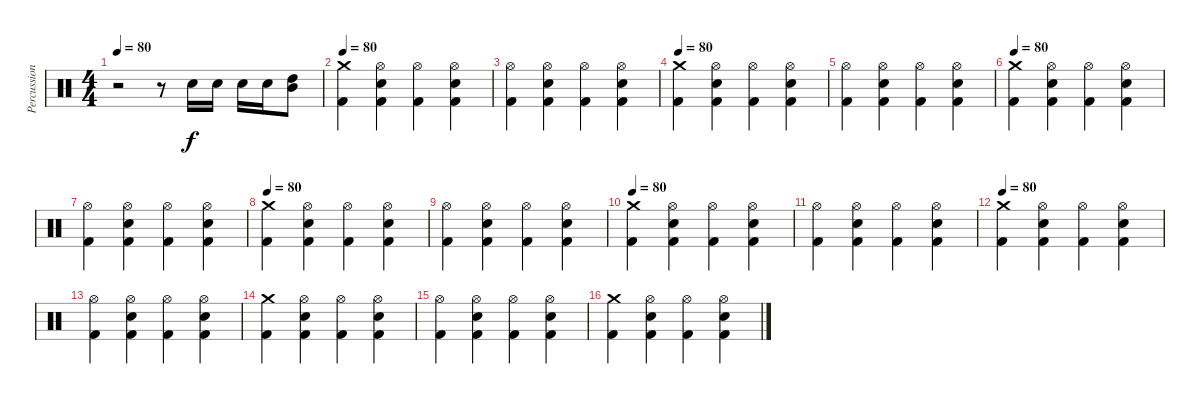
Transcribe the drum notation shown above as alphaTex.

\track ("Percussion" "Percussion") {instrument percussion}
\staff {score}
\articulation defaults
\ts (4 4)
\tempo 80
\clef neutral
\ks c
r.2{dy f} r.8 "Electric Snare (hit)".16 "Electric Snare (hit)".16 "Electric Snare (hit)".16 "Electric Snare (hit)".16 ("High Tom (hit)" "Mid Tom (hit)").8 |
\tempo 80
("Crash medium (hit)" "Kick (hit) 2").4 ("Hi-Hat (open)" "Electric Snare (hit)" "Kick (hit) 2").4 ("Hi-Hat (open)" "Kick (hit) 2").4 ("Hi-Hat (open)" "Electric Snare (hit)" "Kick (hit) 2").4 |
("Hi-Hat (open)" "Kick (hit) 2").4 ("Hi-Hat (open)" "Electric Snare (hit)" "Kick (hit) 2").4 ("Hi-Hat (open)" "Kick (hit) 2").4 ("Hi-Hat (open)" "Electric Snare (hit)" "Kick (hit) 2").4 |
\tempo 80
("Crash medium (hit)" "Kick (hit) 2").4 ("Hi-Hat (open)" "Electric Snare (hit)" "Kick (hit) 2").4 ("Hi-Hat (open)" "Kick (hit) 2").4 ("Hi-Hat (open)" "Electric Snare (hit)" "Kick (hit) 2").4 |
("Hi-Hat (open)" "Kick (hit) 2").4 ("Hi-Hat (open)" "Electric Snare (hit)" "Kick (hit) 2").4 ("Hi-Hat (open)" "Kick (hit) 2").4 ("Hi-Hat (open)" "Electric Snare (hit)" "Kick (hit) 2").4 |
\tempo 80
("Crash medium (hit)" "Kick (hit) 2").4 ("Hi-Hat (open)" "Electric Snare (hit)" "Kick (hit) 2").4 ("Hi-Hat (open)" "Kick (hit) 2").4 ("Hi-Hat (open)" "Electric Snare (hit)" "Kick (hit) 2").4 |
("Hi-Hat (open)" "Kick (hit) 2").4 ("Hi-Hat (open)" "Electric Snare (hit)" "Kick (hit) 2").4 ("Hi-Hat (open)" "Kick (hit) 2").4 ("Hi-Hat (open)" "Electric Snare (hit)" "Kick (hit) 2").4 |
\tempo 80
("Crash medium (hit)" "Kick (hit) 2").4 ("Hi-Hat (open)" "Electric Snare (hit)" "Kick (hit) 2").4 ("Hi-Hat (open)" "Kick (hit) 2").4 ("Hi-Hat (open)" "Electric Snare (hit)" "Kick (hit) 2").4 |
("Hi-Hat (open)" "Kick (hit) 2").4 ("Hi-Hat (open)" "Electric Snare (hit)" "Kick (hit) 2").4 ("Hi-Hat (open)" "Kick (hit) 2").4 ("Hi-Hat (open)" "Electric Snare (hit)" "Kick (hit) 2").4 |
\tempo 80
("Crash medium (hit)" "Kick (hit) 2").4 ("Hi-Hat (open)" "Electric Snare (hit)" "Kick (hit) 2").4 ("Hi-Hat (open)" "Kick (hit) 2").4 ("Hi-Hat (open)" "Electric Snare (hit)" "Kick (hit) 2").4 |
("Hi-Hat (open)" "Kick (hit) 2").4 ("Hi-Hat (open)" "Electric Snare (hit)" "Kick (hit) 2").4 ("Hi-Hat (open)" "Kick (hit) 2").4 ("Hi-Hat (open)" "Electric Snare (hit)" "Kick (hit) 2").4 |
\tempo 80
("Crash medium (hit)" "Kick (hit) 2").4 ("Hi-Hat (open)" "Electric Snare (hit)" "Kick (hit) 2").4 ("Hi-Hat (open)" "Kick (hit) 2").4 ("Hi-Hat (open)" "Electric Snare (hit)" "Kick (hit) 2").4 |
("Hi-Hat (open)" "Kick (hit) 2").4 ("Hi-Hat (open)" "Electric Snare (hit)" "Kick (hit) 2").4 ("Hi-Hat (open)" "Kick (hit) 2").4 ("Hi-Hat (open)" "Electric Snare (hit)" "Kick (hit) 2").4 |
("Crash medium (hit)" "Kick (hit) 2").4 ("Hi-Hat (open)" "Electric Snare (hit)" "Kick (hit) 2").4 ("Hi-Hat (open)" "Kick (hit) 2").4 ("Hi-Hat (open)" "Electric Snare (hit)" "Kick (hit) 2").4 |
("Hi-Hat (open)" "Kick (hit) 2").4 ("Hi-Hat (open)" "Electric Snare (hit)" "Kick (hit) 2").4 ("Hi-Hat (open)" "Kick (hit) 2").4 ("Hi-Hat (open)" "Electric Snare (hit)" "Kick (hit) 2").4 |
("Crash medium (hit)" "Kick (hit) 2").4 ("Hi-Hat (open)" "Electric Snare (hit)" "Kick (hit) 2").4 ("Hi-Hat (open)" "Kick (hit) 2").4 ("Hi-Hat (open)" "Electric Snare (hit)" "Kick (hit) 2").4
